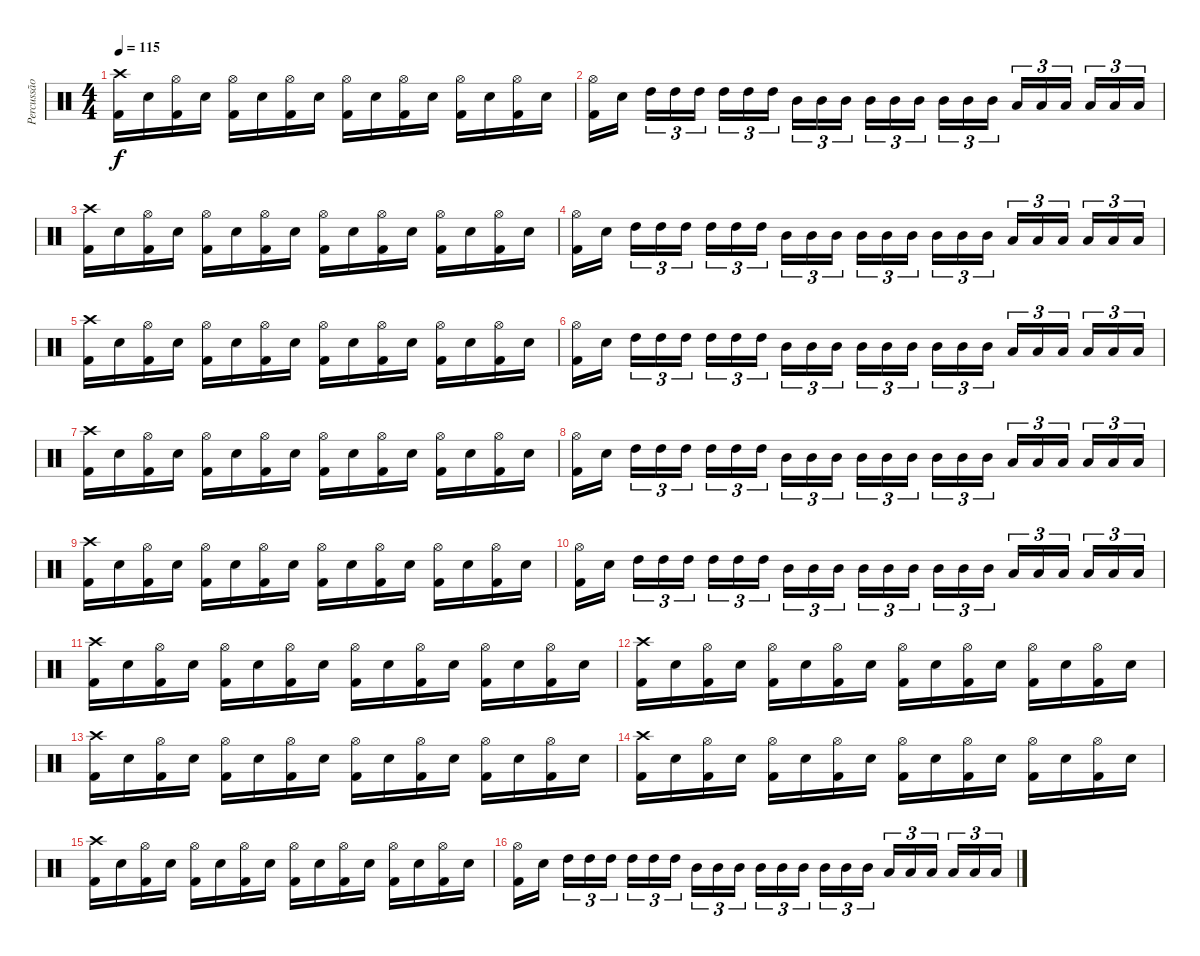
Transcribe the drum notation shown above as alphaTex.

\track ("Percussão" "Percussão") {instrument percussion}
\staff {score}
\articulation defaults
\ts (4 4)
\tempo 115
\clef neutral
\ks c
("Crash high (hit)" "Kick (hit) 2").16{dy f} "Electric Snare (hit)".16 ("Hi-Hat (open)" "Kick (hit) 2").16 "Electric Snare (hit)".16 ("Hi-Hat (open)" "Kick (hit) 2").16 "Electric Snare (hit)".16 ("Hi-Hat (open)" "Kick (hit) 2").16 "Electric Snare (hit)".16 ("Hi-Hat (open)" "Kick (hit) 2").16 "Electric Snare (hit)".16 ("Hi-Hat (open)" "Kick (hit) 2").16 "Electric Snare (hit)".16 ("Hi-Hat (open)" "Kick (hit) 2").16 "Electric Snare (hit)".16 ("Hi-Hat (open)" "Kick (hit) 2").16 "Electric Snare (hit)".16 |
("Hi-Hat (open)" "Kick (hit) 2").16 "Electric Snare (hit)".16 "High Tom (hit)".16{tu (3 2)} "High Tom (hit)".16{tu (3 2)} "High Tom (hit)".16{tu (3 2)} "High Tom (hit)".16{tu (3 2)} "High Tom (hit)".16{tu (3 2)} "High Tom (hit)".16{tu (3 2)} "Mid Tom (hit)".16{tu (3 2)} "Mid Tom (hit)".16{tu (3 2)} "Mid Tom (hit)".16{tu (3 2)} "Mid Tom (hit)".16{tu (3 2)} "Mid Tom (hit)".16{tu (3 2)} "Mid Tom (hit)".16{tu (3 2)} "Mid Tom (hit)".16{tu (3 2)} "Mid Tom (hit)".16{tu (3 2)} "Mid Tom (hit)".16{tu (3 2)} "Low Tom (hit)".16{tu (3 2)} "Low Tom (hit)".16{tu (3 2)} "Low Tom (hit)".16{tu (3 2)} "Low Tom (hit)".16{tu (3 2)} "Low Tom (hit)".16{tu (3 2)} "Low Tom (hit)".16{tu (3 2)} |
("Crash high (hit)" "Kick (hit) 2").16 "Electric Snare (hit)".16 ("Hi-Hat (open)" "Kick (hit) 2").16 "Electric Snare (hit)".16 ("Hi-Hat (open)" "Kick (hit) 2").16 "Electric Snare (hit)".16 ("Hi-Hat (open)" "Kick (hit) 2").16 "Electric Snare (hit)".16 ("Hi-Hat (open)" "Kick (hit) 2").16 "Electric Snare (hit)".16 ("Hi-Hat (open)" "Kick (hit) 2").16 "Electric Snare (hit)".16 ("Hi-Hat (open)" "Kick (hit) 2").16 "Electric Snare (hit)".16 ("Hi-Hat (open)" "Kick (hit) 2").16 "Electric Snare (hit)".16 |
("Hi-Hat (open)" "Kick (hit) 2").16 "Electric Snare (hit)".16 "High Tom (hit)".16{tu (3 2)} "High Tom (hit)".16{tu (3 2)} "High Tom (hit)".16{tu (3 2)} "High Tom (hit)".16{tu (3 2)} "High Tom (hit)".16{tu (3 2)} "High Tom (hit)".16{tu (3 2)} "Mid Tom (hit)".16{tu (3 2)} "Mid Tom (hit)".16{tu (3 2)} "Mid Tom (hit)".16{tu (3 2)} "Mid Tom (hit)".16{tu (3 2)} "Mid Tom (hit)".16{tu (3 2)} "Mid Tom (hit)".16{tu (3 2)} "Mid Tom (hit)".16{tu (3 2)} "Mid Tom (hit)".16{tu (3 2)} "Mid Tom (hit)".16{tu (3 2)} "Low Tom (hit)".16{tu (3 2)} "Low Tom (hit)".16{tu (3 2)} "Low Tom (hit)".16{tu (3 2)} "Low Tom (hit)".16{tu (3 2)} "Low Tom (hit)".16{tu (3 2)} "Low Tom (hit)".16{tu (3 2)} |
("Crash high (hit)" "Kick (hit) 2").16 "Electric Snare (hit)".16 ("Hi-Hat (open)" "Kick (hit) 2").16 "Electric Snare (hit)".16 ("Hi-Hat (open)" "Kick (hit) 2").16 "Electric Snare (hit)".16 ("Hi-Hat (open)" "Kick (hit) 2").16 "Electric Snare (hit)".16 ("Hi-Hat (open)" "Kick (hit) 2").16 "Electric Snare (hit)".16 ("Hi-Hat (open)" "Kick (hit) 2").16 "Electric Snare (hit)".16 ("Hi-Hat (open)" "Kick (hit) 2").16 "Electric Snare (hit)".16 ("Hi-Hat (open)" "Kick (hit) 2").16 "Electric Snare (hit)".16 |
("Hi-Hat (open)" "Kick (hit) 2").16 "Electric Snare (hit)".16 "High Tom (hit)".16{tu (3 2)} "High Tom (hit)".16{tu (3 2)} "High Tom (hit)".16{tu (3 2)} "High Tom (hit)".16{tu (3 2)} "High Tom (hit)".16{tu (3 2)} "High Tom (hit)".16{tu (3 2)} "Mid Tom (hit)".16{tu (3 2)} "Mid Tom (hit)".16{tu (3 2)} "Mid Tom (hit)".16{tu (3 2)} "Mid Tom (hit)".16{tu (3 2)} "Mid Tom (hit)".16{tu (3 2)} "Mid Tom (hit)".16{tu (3 2)} "Mid Tom (hit)".16{tu (3 2)} "Mid Tom (hit)".16{tu (3 2)} "Mid Tom (hit)".16{tu (3 2)} "Low Tom (hit)".16{tu (3 2)} "Low Tom (hit)".16{tu (3 2)} "Low Tom (hit)".16{tu (3 2)} "Low Tom (hit)".16{tu (3 2)} "Low Tom (hit)".16{tu (3 2)} "Low Tom (hit)".16{tu (3 2)} |
("Crash high (hit)" "Kick (hit) 2").16 "Electric Snare (hit)".16 ("Hi-Hat (open)" "Kick (hit) 2").16 "Electric Snare (hit)".16 ("Hi-Hat (open)" "Kick (hit) 2").16 "Electric Snare (hit)".16 ("Hi-Hat (open)" "Kick (hit) 2").16 "Electric Snare (hit)".16 ("Hi-Hat (open)" "Kick (hit) 2").16 "Electric Snare (hit)".16 ("Hi-Hat (open)" "Kick (hit) 2").16 "Electric Snare (hit)".16 ("Hi-Hat (open)" "Kick (hit) 2").16 "Electric Snare (hit)".16 ("Hi-Hat (open)" "Kick (hit) 2").16 "Electric Snare (hit)".16 |
("Hi-Hat (open)" "Kick (hit) 2").16 "Electric Snare (hit)".16 "High Tom (hit)".16{tu (3 2)} "High Tom (hit)".16{tu (3 2)} "High Tom (hit)".16{tu (3 2)} "High Tom (hit)".16{tu (3 2)} "High Tom (hit)".16{tu (3 2)} "High Tom (hit)".16{tu (3 2)} "Mid Tom (hit)".16{tu (3 2)} "Mid Tom (hit)".16{tu (3 2)} "Mid Tom (hit)".16{tu (3 2)} "Mid Tom (hit)".16{tu (3 2)} "Mid Tom (hit)".16{tu (3 2)} "Mid Tom (hit)".16{tu (3 2)} "Mid Tom (hit)".16{tu (3 2)} "Mid Tom (hit)".16{tu (3 2)} "Mid Tom (hit)".16{tu (3 2)} "Low Tom (hit)".16{tu (3 2)} "Low Tom (hit)".16{tu (3 2)} "Low Tom (hit)".16{tu (3 2)} "Low Tom (hit)".16{tu (3 2)} "Low Tom (hit)".16{tu (3 2)} "Low Tom (hit)".16{tu (3 2)} |
("Crash high (hit)" "Kick (hit) 2").16 "Electric Snare (hit)".16 ("Hi-Hat (open)" "Kick (hit) 2").16 "Electric Snare (hit)".16 ("Hi-Hat (open)" "Kick (hit) 2").16 "Electric Snare (hit)".16 ("Hi-Hat (open)" "Kick (hit) 2").16 "Electric Snare (hit)".16 ("Hi-Hat (open)" "Kick (hit) 2").16 "Electric Snare (hit)".16 ("Hi-Hat (open)" "Kick (hit) 2").16 "Electric Snare (hit)".16 ("Hi-Hat (open)" "Kick (hit) 2").16 "Electric Snare (hit)".16 ("Hi-Hat (open)" "Kick (hit) 2").16 "Electric Snare (hit)".16 |
("Hi-Hat (open)" "Kick (hit) 2").16 "Electric Snare (hit)".16 "High Tom (hit)".16{tu (3 2)} "High Tom (hit)".16{tu (3 2)} "High Tom (hit)".16{tu (3 2)} "High Tom (hit)".16{tu (3 2)} "High Tom (hit)".16{tu (3 2)} "High Tom (hit)".16{tu (3 2)} "Mid Tom (hit)".16{tu (3 2)} "Mid Tom (hit)".16{tu (3 2)} "Mid Tom (hit)".16{tu (3 2)} "Mid Tom (hit)".16{tu (3 2)} "Mid Tom (hit)".16{tu (3 2)} "Mid Tom (hit)".16{tu (3 2)} "Mid Tom (hit)".16{tu (3 2)} "Mid Tom (hit)".16{tu (3 2)} "Mid Tom (hit)".16{tu (3 2)} "Low Tom (hit)".16{tu (3 2)} "Low Tom (hit)".16{tu (3 2)} "Low Tom (hit)".16{tu (3 2)} "Low Tom (hit)".16{tu (3 2)} "Low Tom (hit)".16{tu (3 2)} "Low Tom (hit)".16{tu (3 2)} |
("Crash high (hit)" "Kick (hit) 2").16 "Electric Snare (hit)".16 ("Hi-Hat (open)" "Kick (hit) 2").16 "Electric Snare (hit)".16 ("Hi-Hat (open)" "Kick (hit) 2").16 "Electric Snare (hit)".16 ("Hi-Hat (open)" "Kick (hit) 2").16 "Electric Snare (hit)".16 ("Hi-Hat (open)" "Kick (hit) 2").16 "Electric Snare (hit)".16 ("Hi-Hat (open)" "Kick (hit) 2").16 "Electric Snare (hit)".16 ("Hi-Hat (open)" "Kick (hit) 2").16 "Electric Snare (hit)".16 ("Hi-Hat (open)" "Kick (hit) 2").16 "Electric Snare (hit)".16 |
("Crash high (hit)" "Kick (hit) 2").16 "Electric Snare (hit)".16 ("Hi-Hat (open)" "Kick (hit) 2").16 "Electric Snare (hit)".16 ("Hi-Hat (open)" "Kick (hit) 2").16 "Electric Snare (hit)".16 ("Hi-Hat (open)" "Kick (hit) 2").16 "Electric Snare (hit)".16 ("Hi-Hat (open)" "Kick (hit) 2").16 "Electric Snare (hit)".16 ("Hi-Hat (open)" "Kick (hit) 2").16 "Electric Snare (hit)".16 ("Hi-Hat (open)" "Kick (hit) 2").16 "Electric Snare (hit)".16 ("Hi-Hat (open)" "Kick (hit) 2").16 "Electric Snare (hit)".16 |
("Crash high (hit)" "Kick (hit) 2").16 "Electric Snare (hit)".16 ("Hi-Hat (open)" "Kick (hit) 2").16 "Electric Snare (hit)".16 ("Hi-Hat (open)" "Kick (hit) 2").16 "Electric Snare (hit)".16 ("Hi-Hat (open)" "Kick (hit) 2").16 "Electric Snare (hit)".16 ("Hi-Hat (open)" "Kick (hit) 2").16 "Electric Snare (hit)".16 ("Hi-Hat (open)" "Kick (hit) 2").16 "Electric Snare (hit)".16 ("Hi-Hat (open)" "Kick (hit) 2").16 "Electric Snare (hit)".16 ("Hi-Hat (open)" "Kick (hit) 2").16 "Electric Snare (hit)".16 |
("Crash high (hit)" "Kick (hit) 2").16 "Electric Snare (hit)".16 ("Hi-Hat (open)" "Kick (hit) 2").16 "Electric Snare (hit)".16 ("Hi-Hat (open)" "Kick (hit) 2").16 "Electric Snare (hit)".16 ("Hi-Hat (open)" "Kick (hit) 2").16 "Electric Snare (hit)".16 ("Hi-Hat (open)" "Kick (hit) 2").16 "Electric Snare (hit)".16 ("Hi-Hat (open)" "Kick (hit) 2").16 "Electric Snare (hit)".16 ("Hi-Hat (open)" "Kick (hit) 2").16 "Electric Snare (hit)".16 ("Hi-Hat (open)" "Kick (hit) 2").16 "Electric Snare (hit)".16 |
("Crash high (hit)" "Kick (hit) 2").16 "Electric Snare (hit)".16 ("Hi-Hat (open)" "Kick (hit) 2").16 "Electric Snare (hit)".16 ("Hi-Hat (open)" "Kick (hit) 2").16 "Electric Snare (hit)".16 ("Hi-Hat (open)" "Kick (hit) 2").16 "Electric Snare (hit)".16 ("Hi-Hat (open)" "Kick (hit) 2").16 "Electric Snare (hit)".16 ("Hi-Hat (open)" "Kick (hit) 2").16 "Electric Snare (hit)".16 ("Hi-Hat (open)" "Kick (hit) 2").16 "Electric Snare (hit)".16 ("Hi-Hat (open)" "Kick (hit) 2").16 "Electric Snare (hit)".16 |
("Hi-Hat (open)" "Kick (hit) 2").16 "Electric Snare (hit)".16 "High Tom (hit)".16{tu (3 2)} "High Tom (hit)".16{tu (3 2)} "High Tom (hit)".16{tu (3 2)} "High Tom (hit)".16{tu (3 2)} "High Tom (hit)".16{tu (3 2)} "High Tom (hit)".16{tu (3 2)} "Mid Tom (hit)".16{tu (3 2)} "Mid Tom (hit)".16{tu (3 2)} "Mid Tom (hit)".16{tu (3 2)} "Mid Tom (hit)".16{tu (3 2)} "Mid Tom (hit)".16{tu (3 2)} "Mid Tom (hit)".16{tu (3 2)} "Mid Tom (hit)".16{tu (3 2)} "Mid Tom (hit)".16{tu (3 2)} "Mid Tom (hit)".16{tu (3 2)} "Low Tom (hit)".16{tu (3 2)} "Low Tom (hit)".16{tu (3 2)} "Low Tom (hit)".16{tu (3 2)} "Low Tom (hit)".16{tu (3 2)} "Low Tom (hit)".16{tu (3 2)} "Low Tom (hit)".16{tu (3 2)}
